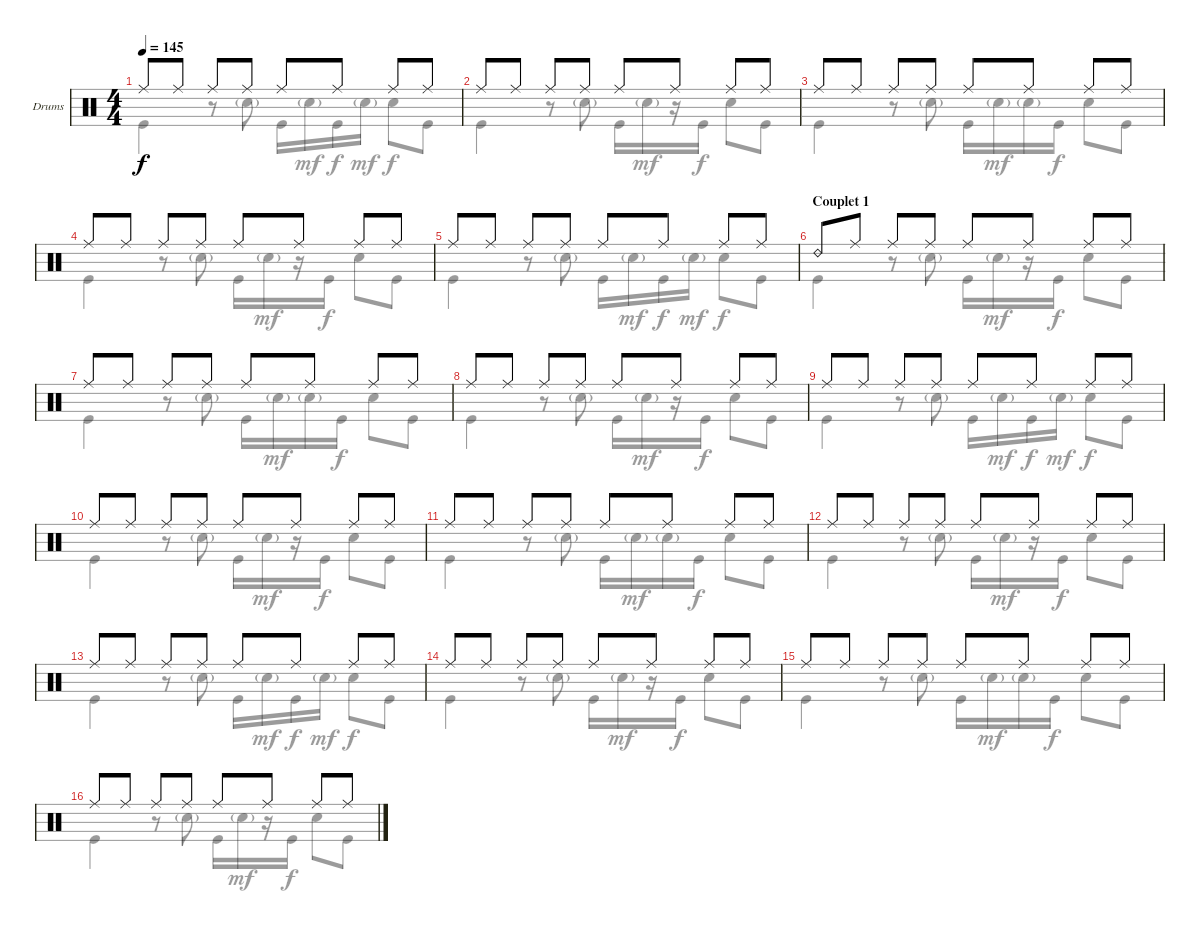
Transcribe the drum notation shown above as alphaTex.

\defaultSystemsLayout 4
\bracketExtendMode groupsimilarinstruments
\firstSystemTrackNameOrientation horizontal
\otherSystemsTrackNameOrientation horizontal
\track ("Drumkit" "Drums") {instrument percussion}
\staff {score}
\articulation defaults
\voice
\ts (4 4)
\tempo 145
\clef neutral
\ks c "Ride (middle)".8{dy f} "Ride (middle)".8 "Ride (middle)".8 "Ride (middle)".8 "Ride (middle)".8 "Ride (middle)".8 "Ride (middle)".8 "Ride (middle)".8
|
"Ride (middle)".8 "Ride (middle)".8 "Ride (middle)".8 "Ride (middle)".8 "Ride (middle)".8 "Ride (middle)".8 "Ride (middle)".8 "Ride (middle)".8 |
"Ride (middle)".8 "Ride (middle)".8 "Ride (middle)".8 "Ride (middle)".8 "Ride (middle)".8 "Ride (middle)".8 "Ride (middle)".8 "Ride (middle)".8 |
"Ride (middle)".8 "Ride (middle)".8 "Ride (middle)".8 "Ride (middle)".8 "Ride (middle)".8 "Ride (middle)".8 "Ride (middle)".8 "Ride (middle)".8 |
"Ride (middle)".8 "Ride (middle)".8 "Ride (middle)".8 "Ride (middle)".8 "Ride (middle)".8 "Ride (middle)".8 "Ride (middle)".8 "Ride (middle)".8 |
\section ("" "Couplet 1")
"Ride (bell) 2".8 "Ride (middle)".8 "Ride (middle)".8 "Ride (middle)".8 "Ride (middle)".8 "Ride (middle)".8 "Ride (middle)".8 "Ride (middle)".8 |
"Ride (middle)".8 "Ride (middle)".8 "Ride (middle)".8 "Ride (middle)".8 "Ride (middle)".8 "Ride (middle)".8 "Ride (middle)".8 "Ride (middle)".8 |
"Ride (middle)".8 "Ride (middle)".8 "Ride (middle)".8 "Ride (middle)".8 "Ride (middle)".8 "Ride (middle)".8 "Ride (middle)".8 "Ride (middle)".8 |
"Ride (middle)".8 "Ride (middle)".8 "Ride (middle)".8 "Ride (middle)".8 "Ride (middle)".8 "Ride (middle)".8 "Ride (middle)".8 "Ride (middle)".8 |
"Ride (middle)".8 "Ride (middle)".8 "Ride (middle)".8 "Ride (middle)".8 "Ride (middle)".8 "Ride (middle)".8 "Ride (middle)".8 "Ride (middle)".8 |
"Ride (middle)".8 "Ride (middle)".8 "Ride (middle)".8 "Ride (middle)".8 "Ride (middle)".8 "Ride (middle)".8 "Ride (middle)".8 "Ride (middle)".8 |
"Ride (middle)".8 "Ride (middle)".8 "Ride (middle)".8 "Ride (middle)".8 "Ride (middle)".8 "Ride (middle)".8 "Ride (middle)".8 "Ride (middle)".8 |
"Ride (middle)".8 "Ride (middle)".8 "Ride (middle)".8 "Ride (middle)".8 "Ride (middle)".8 "Ride (middle)".8 "Ride (middle)".8 "Ride (middle)".8 |
"Ride (middle)".8 "Ride (middle)".8 "Ride (middle)".8 "Ride (middle)".8 "Ride (middle)".8 "Ride (middle)".8 "Ride (middle)".8 "Ride (middle)".8 |
"Ride (middle)".8 "Ride (middle)".8 "Ride (middle)".8 "Ride (middle)".8 "Ride (middle)".8 "Ride (middle)".8 "Ride (middle)".8 "Ride (middle)".8 |
"Ride (middle)".8 "Ride (middle)".8 "Ride (middle)".8 "Ride (middle)".8 "Ride (middle)".8 "Ride (middle)".8 "Ride (middle)".8 "Ride (middle)".8
\voice
\clef neutral
\ottava regular
\simile none
\ks c "Kick (hit)".4{dy f}
r.8 "Snare (hit) 2"{g}.8 "Kick (hit)".16 "Snare (hit) 2"{g}.16{dy mf} "Kick (hit)".16{dy f} "Snare (hit) 2"{g}.16{dy mf} "Snare (hit) 2".8{dy f} "Kick (hit)".8 |
"Kick (hit)".4 r.8 "Snare (hit) 2"{g}.8 "Kick (hit)".16 "Snare (hit) 2"{g}.16{dy mf} r.16 "Kick (hit)".16{dy f} "Snare (hit) 2".8 "Kick (hit)".8 |
"Kick (hit)".4 r.8 "Snare (hit) 2"{g}.8 "Kick (hit)".16 "Snare (hit) 2"{g}.16{dy mf} "Snare (hit) 2"{g}.16 "Kick (hit)".16{dy f} "Snare (hit) 2".8 "Kick (hit)".8 |
"Kick (hit)".4 r.8 "Snare (hit) 2"{g}.8 "Kick (hit)".16 "Snare (hit) 2"{g}.16{dy mf} r.16 "Kick (hit)".16{dy f} "Snare (hit) 2".8 "Kick (hit)".8 |
"Kick (hit)".4 r.8 "Snare (hit) 2"{g}.8 "Kick (hit)".16 "Snare (hit) 2"{g}.16{dy mf} "Kick (hit)".16{dy f} "Snare (hit) 2"{g}.16{dy mf} "Snare (hit) 2".8{dy f} "Kick (hit)".8 |
"Kick (hit)".4 r.8 "Snare (hit) 2"{g}.8 "Kick (hit)".16 "Snare (hit) 2"{g}.16{dy mf} r.16 "Kick (hit)".16{dy f} "Snare (hit) 2".8 "Kick (hit)".8 |
"Kick (hit)".4 r.8 "Snare (hit) 2"{g}.8 "Kick (hit)".16 "Snare (hit) 2"{g}.16{dy mf} "Snare (hit) 2"{g}.16 "Kick (hit)".16{dy f} "Snare (hit) 2".8 "Kick (hit)".8 |
"Kick (hit)".4 r.8 "Snare (hit) 2"{g}.8 "Kick (hit)".16 "Snare (hit) 2"{g}.16{dy mf} r.16 "Kick (hit)".16{dy f} "Snare (hit) 2".8 "Kick (hit)".8 |
"Kick (hit)".4 r.8 "Snare (hit) 2"{g}.8 "Kick (hit)".16 "Snare (hit) 2"{g}.16{dy mf} "Kick (hit)".16{dy f} "Snare (hit) 2"{g}.16{dy mf} "Snare (hit) 2".8{dy f} "Kick (hit)".8 |
"Kick (hit)".4 r.8 "Snare (hit) 2"{g}.8 "Kick (hit)".16 "Snare (hit) 2"{g}.16{dy mf} r.16 "Kick (hit)".16{dy f} "Snare (hit) 2".8 "Kick (hit)".8 |
"Kick (hit)".4 r.8 "Snare (hit) 2"{g}.8 "Kick (hit)".16 "Snare (hit) 2"{g}.16{dy mf} "Snare (hit) 2"{g}.16 "Kick (hit)".16{dy f} "Snare (hit) 2".8 "Kick (hit)".8 |
"Kick (hit)".4 r.8 "Snare (hit) 2"{g}.8 "Kick (hit)".16 "Snare (hit) 2"{g}.16{dy mf} r.16 "Kick (hit)".16{dy f} "Snare (hit) 2".8 "Kick (hit)".8 |
"Kick (hit)".4 r.8 "Snare (hit) 2"{g}.8 "Kick (hit)".16 "Snare (hit) 2"{g}.16{dy mf} "Kick (hit)".16{dy f} "Snare (hit) 2"{g}.16{dy mf} "Snare (hit) 2".8{dy f} "Kick (hit)".8 |
"Kick (hit)".4 r.8 "Snare (hit) 2"{g}.8 "Kick (hit)".16 "Snare (hit) 2"{g}.16{dy mf} r.16 "Kick (hit)".16{dy f} "Snare (hit) 2".8 "Kick (hit)".8 |
"Kick (hit)".4 r.8 "Snare (hit) 2"{g}.8 "Kick (hit)".16 "Snare (hit) 2"{g}.16{dy mf} "Snare (hit) 2"{g}.16 "Kick (hit)".16{dy f} "Snare (hit) 2".8 "Kick (hit)".8 |
"Kick (hit)".4 r.8 "Snare (hit) 2"{g}.8 "Kick (hit)".16 "Snare (hit) 2"{g}.16{dy mf} r.16 "Kick (hit)".16{dy f} "Snare (hit) 2".8 "Kick (hit)".8
